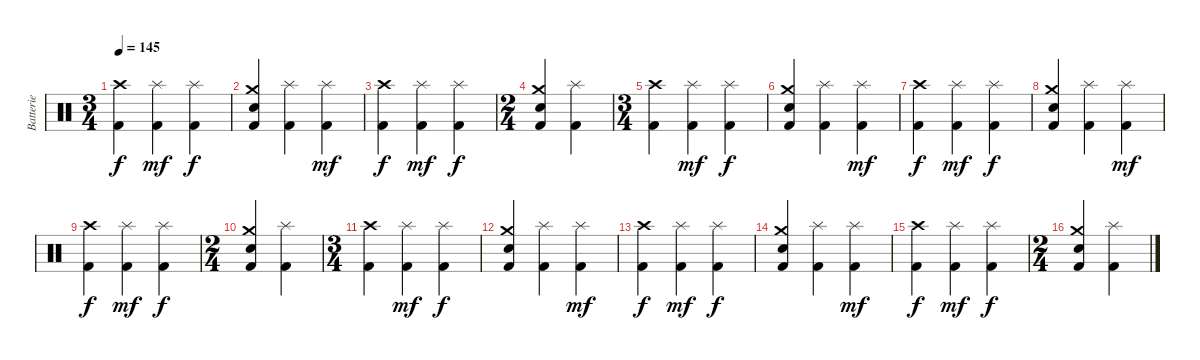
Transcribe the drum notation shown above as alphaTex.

\track ("Batterie" "Batterie") {instrument percussion}
\staff {score}
\articulation defaults
\ts (3 4)
\tempo 145
\clef neutral
\ks c
("Crash high (hit)" "Kick (hit) 2").4{dy f} ("Splash (hit)" "Kick (hit) 2").4{dy mf} ("Splash (hit)" "Kick (hit) 2").4{dy f} |
("Crash medium (hit)" "Electric Snare (hit)" "Kick (hit) 2").4 ("Splash (hit)" "Kick (hit) 2").4 ("Splash (hit)" "Kick (hit) 2").4{dy mf} |
("Crash high (hit)" "Kick (hit) 2").4{dy f} ("Splash (hit)" "Kick (hit) 2").4{dy mf} ("Splash (hit)" "Kick (hit) 2").4{dy f} |
\ts (2 4)
("Crash medium (hit)" "Electric Snare (hit)" "Kick (hit) 2").4 ("Splash (hit)" "Kick (hit) 2").4 |
\ts (3 4)
("Crash high (hit)" "Kick (hit) 2").4 ("Splash (hit)" "Kick (hit) 2").4{dy mf} ("Splash (hit)" "Kick (hit) 2").4{dy f} |
("Crash medium (hit)" "Electric Snare (hit)" "Kick (hit) 2").4 ("Splash (hit)" "Kick (hit) 2").4 ("Splash (hit)" "Kick (hit) 2").4{dy mf} |
("Crash high (hit)" "Kick (hit) 2").4{dy f} ("Splash (hit)" "Kick (hit) 2").4{dy mf} ("Splash (hit)" "Kick (hit) 2").4{dy f} |
("Crash medium (hit)" "Electric Snare (hit)" "Kick (hit) 2").4 ("Splash (hit)" "Kick (hit) 2").4 ("Splash (hit)" "Kick (hit) 2").4{dy mf} |
("Crash high (hit)" "Kick (hit) 2").4{dy f} ("Splash (hit)" "Kick (hit) 2").4{dy mf} ("Splash (hit)" "Kick (hit) 2").4{dy f} |
\ts (2 4)
("Crash medium (hit)" "Electric Snare (hit)" "Kick (hit) 2").4 ("Splash (hit)" "Kick (hit) 2").4 |
\ts (3 4)
("Crash high (hit)" "Kick (hit) 2").4 ("Splash (hit)" "Kick (hit) 2").4{dy mf} ("Splash (hit)" "Kick (hit) 2").4{dy f} |
("Crash medium (hit)" "Electric Snare (hit)" "Kick (hit) 2").4 ("Splash (hit)" "Kick (hit) 2").4 ("Splash (hit)" "Kick (hit) 2").4{dy mf} |
("Crash high (hit)" "Kick (hit) 2").4{dy f} ("Splash (hit)" "Kick (hit) 2").4{dy mf} ("Splash (hit)" "Kick (hit) 2").4{dy f} |
("Crash medium (hit)" "Electric Snare (hit)" "Kick (hit) 2").4 ("Splash (hit)" "Kick (hit) 2").4 ("Splash (hit)" "Kick (hit) 2").4{dy mf} |
("Crash high (hit)" "Kick (hit) 2").4{dy f} ("Splash (hit)" "Kick (hit) 2").4{dy mf} ("Splash (hit)" "Kick (hit) 2").4{dy f} |
\ts (2 4)
("Crash medium (hit)" "Electric Snare (hit)" "Kick (hit) 2").4 ("Splash (hit)" "Kick (hit) 2").4
